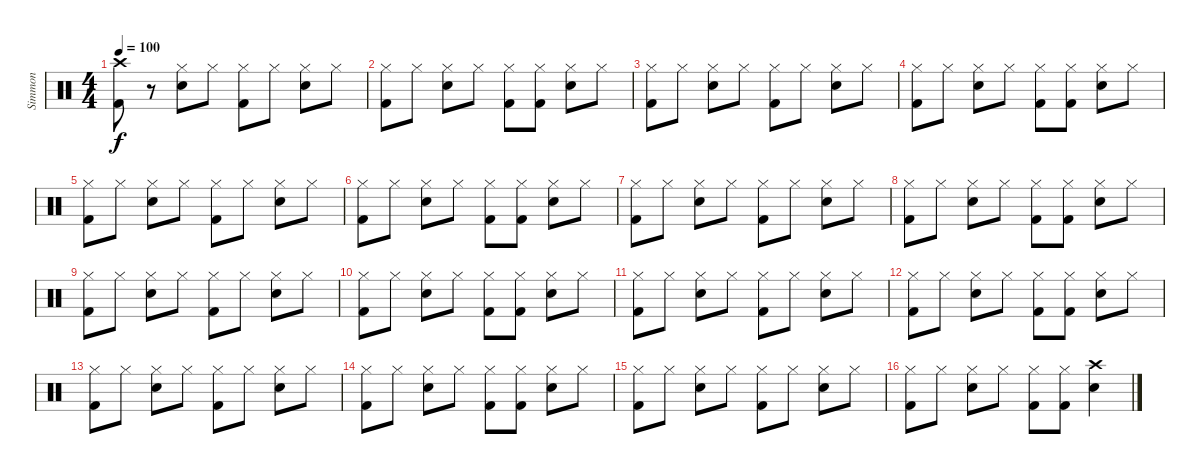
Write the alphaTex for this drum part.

\track ("Simmon" "Simmon") {instrument percussion}
\staff {score}
\articulation defaults
\ts (4 4)
\tempo 100
\clef neutral
\ks c
("Kick (hit) 2" "Crash high (hit)").8{dy f} r.8 ("Electric Snare (hit)" "Hi-Hat (closed)").8 "Hi-Hat (closed)".8 ("Kick (hit) 2" "Hi-Hat (closed)").8 "Hi-Hat (closed)".8 ("Electric Snare (hit)" "Hi-Hat (closed)").8 "Hi-Hat (closed)".8 |
("Kick (hit) 2" "Hi-Hat (closed)").8 "Hi-Hat (closed)".8 ("Electric Snare (hit)" "Hi-Hat (closed)").8 "Hi-Hat (closed)".8 ("Kick (hit) 2" "Hi-Hat (closed)").8 ("Kick (hit) 2" "Hi-Hat (closed)").8 ("Electric Snare (hit)" "Hi-Hat (closed)").8 "Hi-Hat (closed)".8 |
("Kick (hit) 2" "Hi-Hat (closed)").8 "Hi-Hat (closed)".8 ("Electric Snare (hit)" "Hi-Hat (closed)").8 "Hi-Hat (closed)".8 ("Kick (hit) 2" "Hi-Hat (closed)").8 "Hi-Hat (closed)".8 ("Electric Snare (hit)" "Hi-Hat (closed)").8 "Hi-Hat (closed)".8 |
("Kick (hit) 2" "Hi-Hat (closed)").8 "Hi-Hat (closed)".8 ("Electric Snare (hit)" "Hi-Hat (closed)").8 "Hi-Hat (closed)".8 ("Kick (hit) 2" "Hi-Hat (closed)").8 ("Kick (hit) 2" "Hi-Hat (closed)").8 ("Electric Snare (hit)" "Hi-Hat (closed)").8 "Hi-Hat (closed)".8 |
("Kick (hit) 2" "Hi-Hat (closed)").8 "Hi-Hat (closed)".8 ("Electric Snare (hit)" "Hi-Hat (closed)").8 "Hi-Hat (closed)".8 ("Kick (hit) 2" "Hi-Hat (closed)").8 "Hi-Hat (closed)".8 ("Electric Snare (hit)" "Hi-Hat (closed)").8 "Hi-Hat (closed)".8 |
("Kick (hit) 2" "Hi-Hat (closed)").8 "Hi-Hat (closed)".8 ("Electric Snare (hit)" "Hi-Hat (closed)").8 "Hi-Hat (closed)".8 ("Kick (hit) 2" "Hi-Hat (closed)").8 ("Kick (hit) 2" "Hi-Hat (closed)").8 ("Electric Snare (hit)" "Hi-Hat (closed)").8 "Hi-Hat (closed)".8 |
("Kick (hit) 2" "Hi-Hat (closed)").8 "Hi-Hat (closed)".8 ("Electric Snare (hit)" "Hi-Hat (closed)").8 "Hi-Hat (closed)".8 ("Kick (hit) 2" "Hi-Hat (closed)").8 "Hi-Hat (closed)".8 ("Electric Snare (hit)" "Hi-Hat (closed)").8 "Hi-Hat (closed)".8 |
("Kick (hit) 2" "Hi-Hat (closed)").8 "Hi-Hat (closed)".8 ("Electric Snare (hit)" "Hi-Hat (closed)").8 "Hi-Hat (closed)".8 ("Kick (hit) 2" "Hi-Hat (closed)").8 ("Kick (hit) 2" "Hi-Hat (closed)").8 ("Electric Snare (hit)" "Hi-Hat (closed)").8 "Hi-Hat (closed)".8 |
("Kick (hit) 2" "Hi-Hat (closed)").8 "Hi-Hat (closed)".8 ("Electric Snare (hit)" "Hi-Hat (closed)").8 "Hi-Hat (closed)".8 ("Kick (hit) 2" "Hi-Hat (closed)").8 "Hi-Hat (closed)".8 ("Electric Snare (hit)" "Hi-Hat (closed)").8 "Hi-Hat (closed)".8 |
("Kick (hit) 2" "Hi-Hat (closed)").8 "Hi-Hat (closed)".8 ("Electric Snare (hit)" "Hi-Hat (closed)").8 "Hi-Hat (closed)".8 ("Kick (hit) 2" "Hi-Hat (closed)").8 ("Kick (hit) 2" "Hi-Hat (closed)").8 ("Electric Snare (hit)" "Hi-Hat (closed)").8 "Hi-Hat (closed)".8 |
("Kick (hit) 2" "Hi-Hat (closed)").8 "Hi-Hat (closed)".8 ("Electric Snare (hit)" "Hi-Hat (closed)").8 "Hi-Hat (closed)".8 ("Kick (hit) 2" "Hi-Hat (closed)").8 "Hi-Hat (closed)".8 ("Electric Snare (hit)" "Hi-Hat (closed)").8 "Hi-Hat (closed)".8 |
("Kick (hit) 2" "Hi-Hat (closed)").8 "Hi-Hat (closed)".8 ("Electric Snare (hit)" "Hi-Hat (closed)").8 "Hi-Hat (closed)".8 ("Kick (hit) 2" "Hi-Hat (closed)").8 ("Kick (hit) 2" "Hi-Hat (closed)").8 ("Electric Snare (hit)" "Hi-Hat (closed)").8 "Hi-Hat (closed)".8 |
("Kick (hit) 2" "Hi-Hat (closed)").8 "Hi-Hat (closed)".8 ("Electric Snare (hit)" "Hi-Hat (closed)").8 "Hi-Hat (closed)".8 ("Kick (hit) 2" "Hi-Hat (closed)").8 "Hi-Hat (closed)".8 ("Electric Snare (hit)" "Hi-Hat (closed)").8 "Hi-Hat (closed)".8 |
("Kick (hit) 2" "Hi-Hat (closed)").8 "Hi-Hat (closed)".8 ("Electric Snare (hit)" "Hi-Hat (closed)").8 "Hi-Hat (closed)".8 ("Kick (hit) 2" "Hi-Hat (closed)").8 ("Kick (hit) 2" "Hi-Hat (closed)").8 ("Electric Snare (hit)" "Hi-Hat (closed)").8 "Hi-Hat (closed)".8 |
("Kick (hit) 2" "Hi-Hat (closed)").8 "Hi-Hat (closed)".8 ("Electric Snare (hit)" "Hi-Hat (closed)").8 "Hi-Hat (closed)".8 ("Kick (hit) 2" "Hi-Hat (closed)").8 "Hi-Hat (closed)".8 ("Electric Snare (hit)" "Hi-Hat (closed)").8 "Hi-Hat (closed)".8 |
("Kick (hit) 2" "Hi-Hat (closed)").8 "Hi-Hat (closed)".8 ("Electric Snare (hit)" "Hi-Hat (closed)").8 "Hi-Hat (closed)".8 ("Kick (hit) 2" "Hi-Hat (closed)").8 ("Kick (hit) 2" "Hi-Hat (closed)").8 ("Electric Snare (hit)" "Crash high (hit)").4
